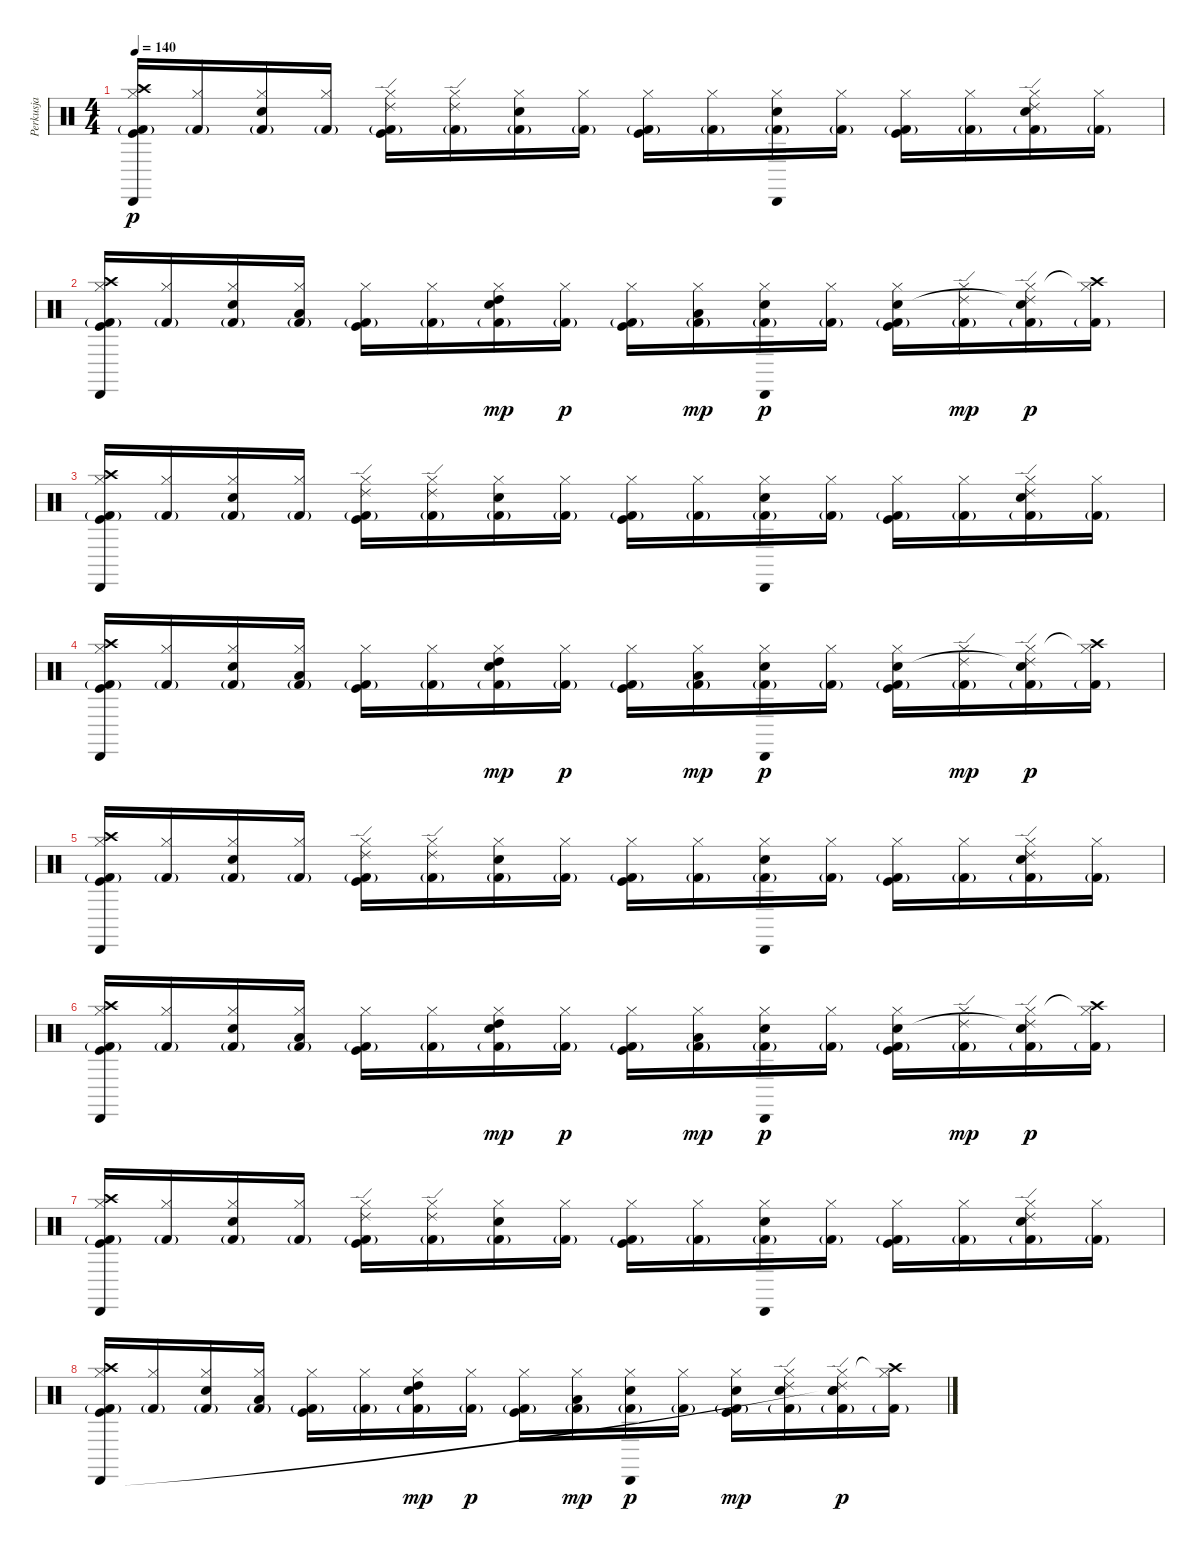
\track ("Perkusja" "Perkusja") {instrument percussion}
\staff {score}
\articulation defaults
\ts (4 4)
\tempo 140
\clef neutral
\ks c
("Kick (hit) 2"{g} "Kick (hit)" "Hi-Hat (closed)" "Crash high (hit)" "Cabasa (hit)").16{dy p} ("Kick (hit) 2"{g} "Hi-Hat (closed)").16 ("Kick (hit) 2"{g} "Snare (hit) 2" "Hi-Hat (closed)").16 ("Kick (hit) 2"{g} "Hi-Hat (closed)").16 ("Kick (hit) 2"{g} "Kick (hit)" "Hi-Hat (closed)" "Ride (edge) 2").16 ("Kick (hit) 2"{g} "Hi-Hat (closed)" "Ride (edge) 2").16 ("Kick (hit) 2"{g} "Snare (hit) 2" "Hi-Hat (closed)").16 ("Kick (hit) 2"{g} "Hi-Hat (closed)").16 ("Kick (hit) 2"{g} "Kick (hit)" "Hi-Hat (closed)").16 ("Kick (hit) 2"{g} "Hi-Hat (closed)").16 ("Kick (hit) 2"{g} "Snare (hit) 2" "Hi-Hat (closed)" "Cabasa (hit)").16 ("Kick (hit) 2"{g} "Hi-Hat (closed)").16 ("Kick (hit) 2"{g} "Kick (hit)" "Hi-Hat (closed)").16 ("Kick (hit) 2"{g} "Hi-Hat (closed)").16 ("Kick (hit) 2"{g} "Snare (hit) 2" "Hi-Hat (closed)" "Ride (edge) 2").16 ("Kick (hit) 2"{g} "Hi-Hat (closed)").16 |
("Kick (hit) 2"{g} "Kick (hit)" "Hi-Hat (closed)" "Crash high (hit)" "Cabasa (hit)").16 ("Kick (hit) 2"{g} "Hi-Hat (closed)").16 ("Kick (hit) 2"{g} "Snare (hit) 2" "Hi-Hat (closed)").16 ("Kick (hit) 2"{g} "Hi-Hat (closed)" "Low Tom (hit)").16 ("Kick (hit) 2"{g} "Kick (hit)" "Hi-Hat (closed)").16 ("Kick (hit) 2"{g} "Hi-Hat (closed)").16 ("Kick (hit) 2"{g} "Snare (hit) 2" "Hi-Hat (closed)" "High Tom (hit)").16{dy mp} ("Kick (hit) 2"{g} "Hi-Hat (closed)").16{dy p} ("Kick (hit) 2"{g} "Kick (hit)" "Hi-Hat (closed)").16 ("Kick (hit) 2"{g} "Hi-Hat (closed)" "Low Tom (hit)").16{dy mp} ("Kick (hit) 2"{g} "Snare (hit) 2" "Hi-Hat (closed)" "Cabasa (hit)").16{dy p} ("Kick (hit) 2"{g} "Hi-Hat (closed)").16 ("Kick (hit) 2"{g} "Kick (hit)" "Hi-Hat (closed)" "Electric Snare (hit)").16 ("Kick (hit) 2"{g} "Hi-Hat (closed)" "Ride (edge) 2").16{dy mp} ("Kick (hit) 2"{g} "Snare (hit) 2" "Hi-Hat (closed)" "Ride (edge) 2"{t}).16{dy p} ("Kick (hit) 2"{g} "Hi-Hat (closed)" "Crash high (hit)"{t}).16 |
("Kick (hit) 2"{g} "Kick (hit)" "Hi-Hat (closed)" "Crash high (hit)" "Cabasa (hit)").16 ("Kick (hit) 2"{g} "Hi-Hat (closed)").16 ("Kick (hit) 2"{g} "Snare (hit) 2" "Hi-Hat (closed)").16 ("Kick (hit) 2"{g} "Hi-Hat (closed)").16 ("Kick (hit) 2"{g} "Kick (hit)" "Hi-Hat (closed)" "Ride (edge) 2").16 ("Kick (hit) 2"{g} "Hi-Hat (closed)" "Ride (edge) 2").16 ("Kick (hit) 2"{g} "Snare (hit) 2" "Hi-Hat (closed)").16 ("Kick (hit) 2"{g} "Hi-Hat (closed)").16 ("Kick (hit) 2"{g} "Kick (hit)" "Hi-Hat (closed)").16 ("Kick (hit) 2"{g} "Hi-Hat (closed)").16 ("Kick (hit) 2"{g} "Snare (hit) 2" "Hi-Hat (closed)" "Cabasa (hit)").16 ("Kick (hit) 2"{g} "Hi-Hat (closed)").16 ("Kick (hit) 2"{g} "Kick (hit)" "Hi-Hat (closed)").16 ("Kick (hit) 2"{g} "Hi-Hat (closed)").16 ("Kick (hit) 2"{g} "Snare (hit) 2" "Hi-Hat (closed)" "Ride (edge) 2").16 ("Kick (hit) 2"{g} "Hi-Hat (closed)").16 |
("Kick (hit) 2"{g} "Kick (hit)" "Hi-Hat (closed)" "Crash high (hit)" "Cabasa (hit)").16 ("Kick (hit) 2"{g} "Hi-Hat (closed)").16 ("Kick (hit) 2"{g} "Snare (hit) 2" "Hi-Hat (closed)").16 ("Kick (hit) 2"{g} "Hi-Hat (closed)" "Low Tom (hit)").16 ("Kick (hit) 2"{g} "Kick (hit)" "Hi-Hat (closed)").16 ("Kick (hit) 2"{g} "Hi-Hat (closed)").16 ("Kick (hit) 2"{g} "Snare (hit) 2" "Hi-Hat (closed)" "High Tom (hit)").16{dy mp} ("Kick (hit) 2"{g} "Hi-Hat (closed)").16{dy p} ("Kick (hit) 2"{g} "Kick (hit)" "Hi-Hat (closed)").16 ("Kick (hit) 2"{g} "Hi-Hat (closed)" "Low Tom (hit)").16{dy mp} ("Kick (hit) 2"{g} "Snare (hit) 2" "Hi-Hat (closed)" "Cabasa (hit)").16{dy p} ("Kick (hit) 2"{g} "Hi-Hat (closed)").16 ("Kick (hit) 2"{g} "Kick (hit)" "Hi-Hat (closed)" "Electric Snare (hit)").16 ("Kick (hit) 2"{g} "Hi-Hat (closed)" "Ride (edge) 2").16{dy mp} ("Kick (hit) 2"{g} "Snare (hit) 2" "Hi-Hat (closed)" "Ride (edge) 2"{t}).16{dy p} ("Kick (hit) 2"{g} "Hi-Hat (closed)" "Crash high (hit)"{t}).16 |
("Kick (hit) 2"{g} "Kick (hit)" "Hi-Hat (closed)" "Crash high (hit)" "Cabasa (hit)").16 ("Kick (hit) 2"{g} "Hi-Hat (closed)").16 ("Kick (hit) 2"{g} "Snare (hit) 2" "Hi-Hat (closed)").16 ("Kick (hit) 2"{g} "Hi-Hat (closed)").16 ("Kick (hit) 2"{g} "Kick (hit)" "Hi-Hat (closed)" "Ride (edge) 2").16 ("Kick (hit) 2"{g} "Hi-Hat (closed)" "Ride (edge) 2").16 ("Kick (hit) 2"{g} "Snare (hit) 2" "Hi-Hat (closed)").16 ("Kick (hit) 2"{g} "Hi-Hat (closed)").16 ("Kick (hit) 2"{g} "Kick (hit)" "Hi-Hat (closed)").16 ("Kick (hit) 2"{g} "Hi-Hat (closed)").16 ("Kick (hit) 2"{g} "Snare (hit) 2" "Hi-Hat (closed)" "Cabasa (hit)").16 ("Kick (hit) 2"{g} "Hi-Hat (closed)").16 ("Kick (hit) 2"{g} "Kick (hit)" "Hi-Hat (closed)").16 ("Kick (hit) 2"{g} "Hi-Hat (closed)").16 ("Kick (hit) 2"{g} "Snare (hit) 2" "Hi-Hat (closed)" "Ride (edge) 2").16 ("Kick (hit) 2"{g} "Hi-Hat (closed)").16 |
("Kick (hit) 2"{g} "Kick (hit)" "Hi-Hat (closed)" "Crash high (hit)" "Cabasa (hit)").16 ("Kick (hit) 2"{g} "Hi-Hat (closed)").16 ("Kick (hit) 2"{g} "Snare (hit) 2" "Hi-Hat (closed)").16 ("Kick (hit) 2"{g} "Hi-Hat (closed)" "Low Tom (hit)").16 ("Kick (hit) 2"{g} "Kick (hit)" "Hi-Hat (closed)").16 ("Kick (hit) 2"{g} "Hi-Hat (closed)").16 ("Kick (hit) 2"{g} "Snare (hit) 2" "Hi-Hat (closed)" "High Tom (hit)").16{dy mp} ("Kick (hit) 2"{g} "Hi-Hat (closed)").16{dy p} ("Kick (hit) 2"{g} "Kick (hit)" "Hi-Hat (closed)").16 ("Kick (hit) 2"{g} "Hi-Hat (closed)" "Low Tom (hit)").16{dy mp} ("Kick (hit) 2"{g} "Snare (hit) 2" "Hi-Hat (closed)" "Cabasa (hit)").16{dy p} ("Kick (hit) 2"{g} "Hi-Hat (closed)").16 ("Kick (hit) 2"{g} "Kick (hit)" "Hi-Hat (closed)" "Electric Snare (hit)").16 ("Kick (hit) 2"{g} "Hi-Hat (closed)" "Ride (edge) 2").16{dy mp} ("Kick (hit) 2"{g} "Snare (hit) 2" "Hi-Hat (closed)" "Ride (edge) 2"{t}).16{dy p} ("Kick (hit) 2"{g} "Hi-Hat (closed)" "Crash high (hit)"{t}).16 |
("Kick (hit) 2"{g} "Kick (hit)" "Hi-Hat (closed)" "Crash high (hit)" "Cabasa (hit)").16 ("Kick (hit) 2"{g} "Hi-Hat (closed)").16 ("Kick (hit) 2"{g} "Snare (hit) 2" "Hi-Hat (closed)").16 ("Kick (hit) 2"{g} "Hi-Hat (closed)").16 ("Kick (hit) 2"{g} "Kick (hit)" "Hi-Hat (closed)" "Ride (edge) 2").16 ("Kick (hit) 2"{g} "Hi-Hat (closed)" "Ride (edge) 2").16 ("Kick (hit) 2"{g} "Snare (hit) 2" "Hi-Hat (closed)").16 ("Kick (hit) 2"{g} "Hi-Hat (closed)").16 ("Kick (hit) 2"{g} "Kick (hit)" "Hi-Hat (closed)").16 ("Kick (hit) 2"{g} "Hi-Hat (closed)").16 ("Kick (hit) 2"{g} "Snare (hit) 2" "Hi-Hat (closed)" "Cabasa (hit)").16 ("Kick (hit) 2"{g} "Hi-Hat (closed)").16 ("Kick (hit) 2"{g} "Kick (hit)" "Hi-Hat (closed)").16 ("Kick (hit) 2"{g} "Hi-Hat (closed)").16 ("Kick (hit) 2"{g} "Snare (hit) 2" "Hi-Hat (closed)" "Ride (edge) 2").16 ("Kick (hit) 2"{g} "Hi-Hat (closed)").16 |
("Kick (hit) 2"{g} "Kick (hit)" "Hi-Hat (closed)" "Crash high (hit)" "Cabasa (hit)").16 ("Kick (hit) 2"{g} "Hi-Hat (closed)").16 ("Kick (hit) 2"{g} "Snare (hit) 2" "Hi-Hat (closed)").16 ("Kick (hit) 2"{g} "Hi-Hat (closed)" "Low Tom (hit)").16 ("Kick (hit) 2"{g} "Kick (hit)" "Hi-Hat (closed)").16 ("Kick (hit) 2"{g} "Hi-Hat (closed)").16 ("Kick (hit) 2"{g} "Snare (hit) 2" "Hi-Hat (closed)" "High Tom (hit)").16{dy mp} ("Kick (hit) 2"{g} "Hi-Hat (closed)").16{dy p} ("Kick (hit) 2"{g} "Kick (hit)" "Hi-Hat (closed)").16 ("Kick (hit) 2"{g} "Hi-Hat (closed)" "Low Tom (hit)").16{dy mp} ("Kick (hit) 2"{g} "Snare (hit) 2" "Hi-Hat (closed)" "Cabasa (hit)").16{dy p} ("Kick (hit) 2"{g} "Hi-Hat (closed)").16 ("Kick (hit) 2"{g} "Kick (hit)" "Hi-Hat (closed)" "Electric Snare (hit)").16{dy mp} ("Kick (hit) 2"{g} "Hi-Hat (closed)" "Electric Snare (hit)" "Ride (edge) 2").16 ("Kick (hit) 2"{g} "Snare (hit) 2" "Hi-Hat (closed)" "Electric Snare (hit)" "Ride (edge) 2"{t}).16{dy p} ("Kick (hit) 2"{g} "Hi-Hat (closed)" "Crash high (hit)"{t}).16
